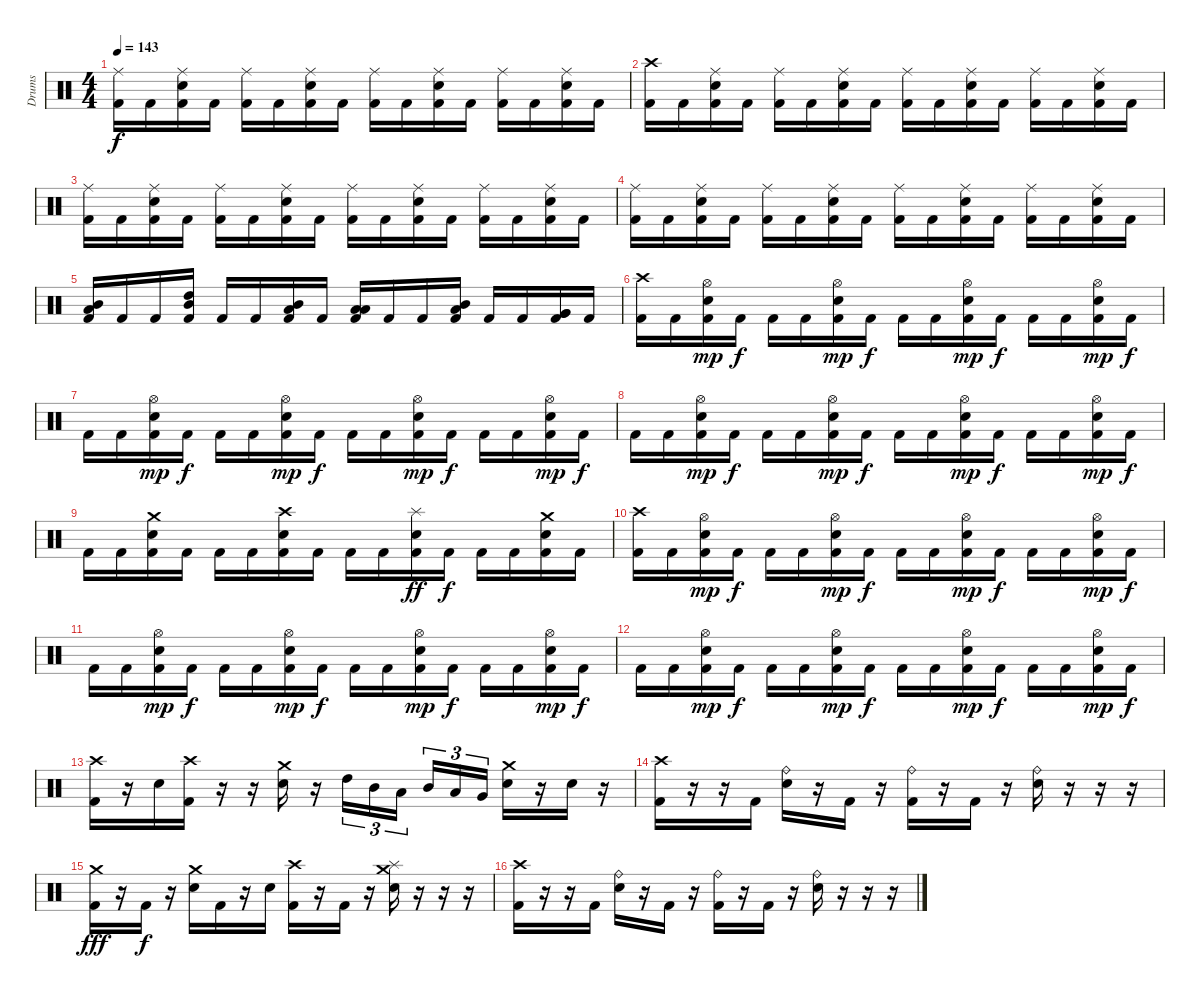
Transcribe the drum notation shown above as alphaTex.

\track ("Drums" "Drums") {instrument percussion}
\staff {score}
\articulation defaults
\ts (4 4)
\tempo 143
\clef neutral
\ks c
("Ride (middle)" "Kick (hit) 2").16{dy f} "Kick (hit) 2".16 ("Ride (middle)" "Electric Snare (hit)" "Kick (hit) 2").16 "Kick (hit) 2".16 ("Ride (middle)" "Kick (hit) 2").16 "Kick (hit) 2".16 ("Ride (middle)" "Electric Snare (hit)" "Kick (hit) 2").16 "Kick (hit) 2".16 ("Ride (middle)" "Kick (hit) 2").16 "Kick (hit) 2".16 ("Ride (middle)" "Electric Snare (hit)" "Kick (hit) 2").16 "Kick (hit) 2".16 ("Ride (middle)" "Kick (hit) 2").16 "Kick (hit) 2".16 ("Ride (middle)" "Electric Snare (hit)" "Kick (hit) 2").16 "Kick (hit) 2".16 |
("Crash high (hit)" "Kick (hit) 2").16 "Kick (hit) 2".16 ("Ride (middle)" "Electric Snare (hit)" "Kick (hit) 2").16 "Kick (hit) 2".16 ("Ride (middle)" "Kick (hit) 2").16 "Kick (hit) 2".16 ("Ride (middle)" "Electric Snare (hit)" "Kick (hit) 2").16 "Kick (hit) 2".16 ("Ride (middle)" "Kick (hit) 2").16 "Kick (hit) 2".16 ("Ride (middle)" "Electric Snare (hit)" "Kick (hit) 2").16 "Kick (hit) 2".16 ("Ride (middle)" "Kick (hit) 2").16 "Kick (hit) 2".16 ("Ride (middle)" "Electric Snare (hit)" "Kick (hit) 2").16 "Kick (hit) 2".16 |
("Ride (middle)" "Kick (hit) 2").16 "Kick (hit) 2".16 ("Ride (middle)" "Electric Snare (hit)" "Kick (hit) 2").16 "Kick (hit) 2".16 ("Ride (middle)" "Kick (hit) 2").16 "Kick (hit) 2".16 ("Ride (middle)" "Electric Snare (hit)" "Kick (hit) 2").16 "Kick (hit) 2".16 ("Ride (middle)" "Kick (hit) 2").16 "Kick (hit) 2".16 ("Ride (middle)" "Electric Snare (hit)" "Kick (hit) 2").16 "Kick (hit) 2".16 ("Ride (middle)" "Kick (hit) 2").16 "Kick (hit) 2".16 ("Ride (middle)" "Electric Snare (hit)" "Kick (hit) 2").16 "Kick (hit) 2".16 |
("Ride (middle)" "Kick (hit) 2").16 "Kick (hit) 2".16 ("Ride (middle)" "Electric Snare (hit)" "Kick (hit) 2").16 "Kick (hit) 2".16 ("Ride (middle)" "Kick (hit) 2").16 "Kick (hit) 2".16 ("Ride (middle)" "Electric Snare (hit)" "Kick (hit) 2").16 "Kick (hit) 2".16 ("Ride (middle)" "Kick (hit) 2").16 "Kick (hit) 2".16 ("Ride (middle)" "Electric Snare (hit)" "Kick (hit) 2").16 "Kick (hit) 2".16 ("Ride (middle)" "Kick (hit) 2").16 "Kick (hit) 2".16 ("Ride (middle)" "Electric Snare (hit)" "Kick (hit) 2").16 "Kick (hit) 2".16 |
("Mid Tom (hit)" "Low Tom (hit)" "Kick (hit) 2").16 "Kick (hit) 2".16 "Kick (hit) 2".16 ("High Tom (hit)" "Mid Tom (hit)" "Kick (hit) 2").16 "Kick (hit) 2".16 "Kick (hit) 2".16 ("Mid Tom (hit)" "Low Tom (hit)" "Kick (hit) 2").16 "Kick (hit) 2".16 ("Low Tom (hit)" "Low Tom (hit)" "Kick (hit) 2").16 "Kick (hit) 2".16 "Kick (hit) 2".16 ("Mid Tom (hit)" "Low Tom (hit)" "Kick (hit) 2").16 "Kick (hit) 2".16 "Kick (hit) 2".16 ("Very Low Tom (hit)" "Very Low Tom (hit)" "Kick (hit) 2").16 "Kick (hit) 2".16 |
("Crash high (hit)" "Kick (hit) 2").16 "Kick (hit) 2".16 ("Hi-Hat (open)" "Electric Snare (hit)" "Kick (hit) 2").16{dy mp} "Kick (hit) 2".16{dy f} "Kick (hit) 2".16 "Kick (hit) 2".16 ("Hi-Hat (open)" "Electric Snare (hit)" "Kick (hit) 2").16{dy mp} "Kick (hit) 2".16{dy f} "Kick (hit) 2".16 "Kick (hit) 2".16 ("Hi-Hat (open)" "Electric Snare (hit)" "Kick (hit) 2").16{dy mp} "Kick (hit) 2".16{dy f} "Kick (hit) 2".16 "Kick (hit) 2".16 ("Hi-Hat (open)" "Electric Snare (hit)" "Kick (hit) 2").16{dy mp} "Kick (hit) 2".16{dy f} |
"Kick (hit) 2".16 "Kick (hit) 2".16 ("Hi-Hat (open)" "Electric Snare (hit)" "Kick (hit) 2").16{dy mp} "Kick (hit) 2".16{dy f} "Kick (hit) 2".16 "Kick (hit) 2".16 ("Hi-Hat (open)" "Electric Snare (hit)" "Kick (hit) 2").16{dy mp} "Kick (hit) 2".16{dy f} "Kick (hit) 2".16 "Kick (hit) 2".16 ("Hi-Hat (open)" "Electric Snare (hit)" "Kick (hit) 2").16{dy mp} "Kick (hit) 2".16{dy f} "Kick (hit) 2".16 "Kick (hit) 2".16 ("Hi-Hat (open)" "Electric Snare (hit)" "Kick (hit) 2").16{dy mp} "Kick (hit) 2".16{dy f} |
"Kick (hit) 2".16 "Kick (hit) 2".16 ("Hi-Hat (open)" "Electric Snare (hit)" "Kick (hit) 2").16{dy mp} "Kick (hit) 2".16{dy f} "Kick (hit) 2".16 "Kick (hit) 2".16 ("Hi-Hat (open)" "Electric Snare (hit)" "Kick (hit) 2").16{dy mp} "Kick (hit) 2".16{dy f} "Kick (hit) 2".16 "Kick (hit) 2".16 ("Hi-Hat (open)" "Electric Snare (hit)" "Kick (hit) 2").16{dy mp} "Kick (hit) 2".16{dy f} "Kick (hit) 2".16 "Kick (hit) 2".16 ("Hi-Hat (open)" "Electric Snare (hit)" "Kick (hit) 2").16{dy mp} "Kick (hit) 2".16{dy f} |
"Kick (hit) 2".16 "Kick (hit) 2".16 ("Crash medium (hit)" "Electric Snare (hit)" "Kick (hit) 2").16 "Kick (hit) 2".16 "Kick (hit) 2".16 "Kick (hit) 2".16 ("Crash high (hit)" "Electric Snare (hit)" "Kick (hit) 2").16 "Kick (hit) 2".16 "Kick (hit) 2".16 "Kick (hit) 2".16 ("Splash (hit)" "Electric Snare (hit)" "Kick (hit) 2").16{dy ff} "Kick (hit) 2".16{dy f} "Kick (hit) 2".16 "Kick (hit) 2".16 ("Crash medium (hit)" "Electric Snare (hit)" "Kick (hit) 2").16 "Kick (hit) 2".16 |
("Crash high (hit)" "Kick (hit) 2").16 "Kick (hit) 2".16 ("Hi-Hat (open)" "Electric Snare (hit)" "Kick (hit) 2").16{dy mp} "Kick (hit) 2".16{dy f} "Kick (hit) 2".16 "Kick (hit) 2".16 ("Hi-Hat (open)" "Electric Snare (hit)" "Kick (hit) 2").16{dy mp} "Kick (hit) 2".16{dy f} "Kick (hit) 2".16 "Kick (hit) 2".16 ("Hi-Hat (open)" "Electric Snare (hit)" "Kick (hit) 2").16{dy mp} "Kick (hit) 2".16{dy f} "Kick (hit) 2".16 "Kick (hit) 2".16 ("Hi-Hat (open)" "Electric Snare (hit)" "Kick (hit) 2").16{dy mp} "Kick (hit) 2".16{dy f} |
"Kick (hit) 2".16 "Kick (hit) 2".16 ("Hi-Hat (open)" "Electric Snare (hit)" "Kick (hit) 2").16{dy mp} "Kick (hit) 2".16{dy f} "Kick (hit) 2".16 "Kick (hit) 2".16 ("Hi-Hat (open)" "Electric Snare (hit)" "Kick (hit) 2").16{dy mp} "Kick (hit) 2".16{dy f} "Kick (hit) 2".16 "Kick (hit) 2".16 ("Hi-Hat (open)" "Electric Snare (hit)" "Kick (hit) 2").16{dy mp} "Kick (hit) 2".16{dy f} "Kick (hit) 2".16 "Kick (hit) 2".16 ("Hi-Hat (open)" "Electric Snare (hit)" "Kick (hit) 2").16{dy mp} "Kick (hit) 2".16{dy f} |
"Kick (hit) 2".16 "Kick (hit) 2".16 ("Hi-Hat (open)" "Electric Snare (hit)" "Kick (hit) 2").16{dy mp} "Kick (hit) 2".16{dy f} "Kick (hit) 2".16 "Kick (hit) 2".16 ("Hi-Hat (open)" "Electric Snare (hit)" "Kick (hit) 2").16{dy mp} "Kick (hit) 2".16{dy f} "Kick (hit) 2".16 "Kick (hit) 2".16 ("Hi-Hat (open)" "Electric Snare (hit)" "Kick (hit) 2").16{dy mp} "Kick (hit) 2".16{dy f} "Kick (hit) 2".16 "Kick (hit) 2".16 ("Hi-Hat (open)" "Electric Snare (hit)" "Kick (hit) 2").16{dy mp} "Kick (hit) 2".16{dy f} |
("Crash high (hit)" "Kick (hit) 2").16 r.16 "Electric Snare (hit)".16 ("Crash high (hit)" "Kick (hit) 2").16 r.16 r.16 ("Crash medium (hit)" "Electric Snare (hit)").16 r.16 "High Tom (hit)".16{tu (3 2)} "Mid Tom (hit)".16{tu (3 2)} "Low Tom (hit)".16{tu (3 2)} "Mid Tom (hit)".16{tu (3 2)} "Low Tom (hit)".16{tu (3 2)} "Very Low Tom (hit)".16{tu (3 2)} ("Crash medium (hit)" "Electric Snare (hit)").16 r.16 "Electric Snare (hit)".16 r.16 |
("Crash high (hit)" "Kick (hit) 2").16 r.16 r.16 "Kick (hit) 2".16 ("Ride (bell)" "Electric Snare (hit)").16 r.16 "Kick (hit) 2".16 r.16 ("Ride (bell)" "Kick (hit) 2").16 r.16 "Kick (hit) 2".16 r.16 ("Ride (bell)" "Electric Snare (hit)").16 r.16 r.16 r.16 |
("Crash medium (hit)" "Kick (hit) 2").16{dy fff} r.16 "Kick (hit) 2".16{dy f} r.16 ("Crash medium (hit)" "Electric Snare (hit)").16 "Kick (hit) 2".16 r.16 "Electric Snare (hit)".16 ("Crash high (hit)" "Kick (hit) 2").16 r.16 "Kick (hit) 2".16 r.16 ("Crash medium (hit)" "Splash (hit)" "Electric Snare (hit)").16 r.16 r.16 r.16 |
("Crash high (hit)" "Kick (hit) 2").16 r.16 r.16 "Kick (hit) 2".16 ("Ride (bell)" "Electric Snare (hit)").16 r.16 "Kick (hit) 2".16 r.16 ("Ride (bell)" "Kick (hit) 2").16 r.16 "Kick (hit) 2".16 r.16 ("Ride (bell)" "Electric Snare (hit)").16 r.16 r.16 r.16
